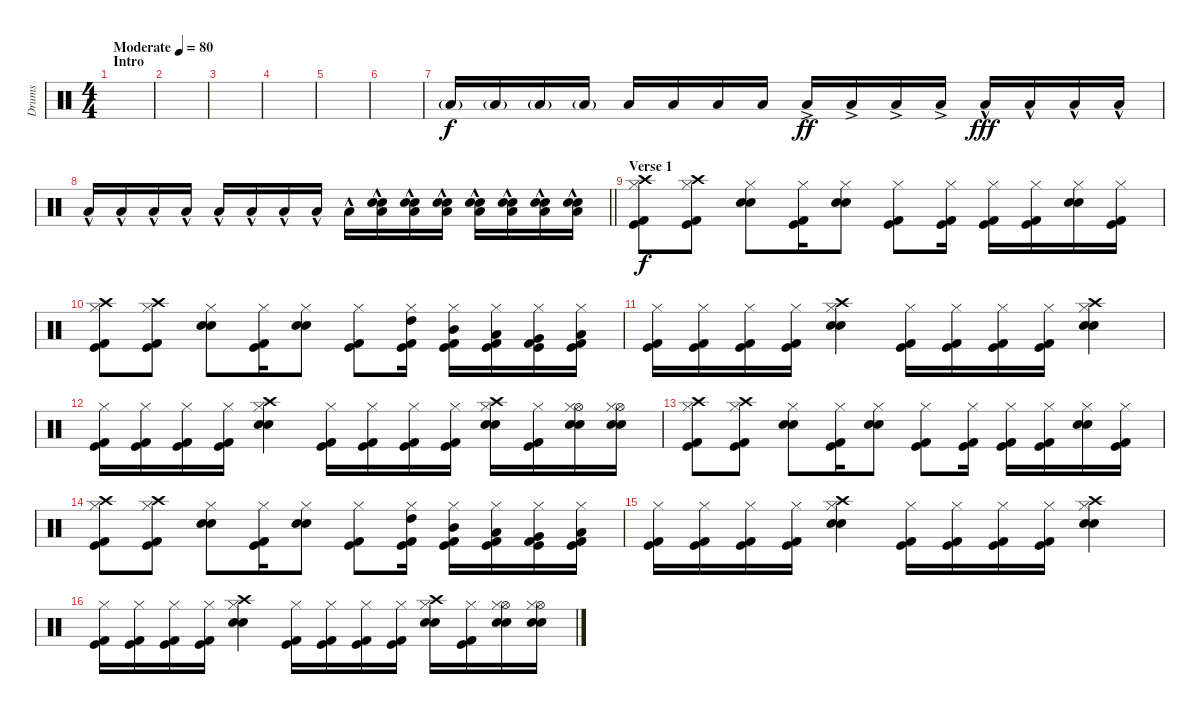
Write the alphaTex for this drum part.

\track ("Drums" "Drums") {instrument percussion}
\staff {score}
\articulation defaults
\ts (4 4)
\section ("" "Intro")
\tempo (80 "Moderate")
\clef neutral
\ks c
|
|
|
|
|
|
"Low Floor Tom (hit)"{g}.16 "Low Floor Tom (hit)"{g}.16 "Low Floor Tom (hit)"{g}.16 "Low Floor Tom (hit)"{g}.16 "Low Floor Tom (hit)".16{dy f} "Low Floor Tom (hit)".16 "Low Floor Tom (hit)".16 "Low Floor Tom (hit)".16 "Low Floor Tom (hit)"{ac}.16{dy ff} "Low Floor Tom (hit)"{ac}.16 "Low Floor Tom (hit)"{ac}.16 "Low Floor Tom (hit)"{ac}.16 "Low Floor Tom (hit)"{hac}.16{dy fff} "Low Floor Tom (hit)"{hac}.16 "Low Floor Tom (hit)"{hac}.16 "Low Floor Tom (hit)"{hac}.16 |
\barLineRight lightlight "Low Floor Tom (hit)"{hac}.16 "Low Floor Tom (hit)"{hac}.16 "Low Floor Tom (hit)"{hac}.16 "Low Floor Tom (hit)"{hac}.16 "Low Floor Tom (hit)"{hac}.16 "Low Floor Tom (hit)"{hac}.16 "Low Floor Tom (hit)"{hac}.16 "Low Floor Tom (hit)"{hac}.16 "Low Floor Tom (hit)"{hac}.16
("Snare (hit) 2"{hac} "Snare (hit) 2" "Low Floor Tom (hit)"{hac}).16 ("Snare (hit) 2"{hac} "Snare (hit) 2" "Low Floor Tom (hit)"{hac}).16 ("Snare (hit) 2"{hac} "Snare (hit) 2" "Low Floor Tom (hit)"{hac}).16 ("Snare (hit) 2"{hac} "Snare (hit) 2" "Low Floor Tom (hit)"{hac}).16 ("Snare (hit) 2"{hac} "Snare (hit) 2" "Low Floor Tom (hit)"{hac}).16 ("Snare (hit) 2"{hac} "Snare (hit) 2" "Low Floor Tom (hit)"{hac}).16 ("Snare (hit) 2"{hac} "Snare (hit) 2" "Low Floor Tom (hit)"{hac}).16 |
\section ("" "Verse 1")
("Crash high (hit)" "Hi-Hat (closed)" "Kick (hit) 2" "Kick (hit)").8{dy f} ("Crash high (hit)" "Hi-Hat (closed)" "Kick (hit) 2" "Kick (hit)").8 ("Hi-Hat (closed)" "Snare (hit) 2" "Electric Snare (hit)").8 ("Hi-Hat (closed)" "Kick (hit) 2" "Kick (hit)").16 ("Hi-Hat (closed)" "Snare (hit) 2" "Electric Snare (hit)").8 ("Hi-Hat (closed)" "Kick (hit) 2" "Kick (hit)").8 ("Hi-Hat (closed)" "Kick (hit) 2" "Kick (hit)").16 ("Hi-Hat (closed)" "Kick (hit) 2" "Kick (hit)").16 ("Hi-Hat (closed)" "Kick (hit) 2" "Kick (hit)").16 ("Hi-Hat (closed)" "Snare (hit) 2" "Electric Snare (hit)").16 ("Hi-Hat (closed)" "Kick (hit) 2" "Kick (hit)").16 |
("Crash high (hit)" "Hi-Hat (closed)" "Kick (hit) 2" "Kick (hit)").8 ("Crash high (hit)" "Hi-Hat (closed)" "Kick (hit) 2" "Kick (hit)").8 ("Hi-Hat (closed)" "Snare (hit) 2" "Electric Snare (hit)").8 ("Hi-Hat (closed)" "Kick (hit) 2" "Kick (hit)").16 ("Hi-Hat (closed)" "Snare (hit) 2" "Electric Snare (hit)").8 ("Hi-Hat (closed)" "Kick (hit) 2" "Kick (hit)").8 ("Hi-Hat (closed)" "High Tom (hit)" "Kick (hit) 2" "Kick (hit)").16 ("Hi-Hat (closed)" "Mid Tom (hit)" "Kick (hit) 2" "Kick (hit)").16 ("Hi-Hat (closed)" "Low Tom (hit)" "Kick (hit) 2" "Kick (hit)").16 ("Hi-Hat (closed)" "Very Low Tom (hit)" "Kick (hit) 2" "Kick (hit)").16 ("Hi-Hat (closed)" "Low Floor Tom (hit)" "Kick (hit) 2" "Kick (hit)").16 |
("Hi-Hat (closed)" "Kick (hit) 2" "Kick (hit)").16 ("Hi-Hat (closed)" "Kick (hit) 2" "Kick (hit)").16 ("Hi-Hat (closed)" "Kick (hit) 2" "Kick (hit)").16 ("Hi-Hat (closed)" "Kick (hit) 2" "Kick (hit)").16 ("Crash high (hit)" "Hi-Hat (closed)" "Snare (hit) 2" "Electric Snare (hit)").4 ("Hi-Hat (closed)" "Kick (hit) 2" "Kick (hit)").16 ("Hi-Hat (closed)" "Kick (hit) 2" "Kick (hit)").16 ("Hi-Hat (closed)" "Kick (hit) 2" "Kick (hit)").16 ("Hi-Hat (closed)" "Kick (hit) 2" "Kick (hit)").16 ("Crash high (hit)" "Hi-Hat (closed)" "Snare (hit) 2" "Electric Snare (hit)").4 |
("Hi-Hat (closed)" "Kick (hit) 2" "Kick (hit)").16 ("Hi-Hat (closed)" "Kick (hit) 2" "Kick (hit)").16 ("Hi-Hat (closed)" "Kick (hit) 2" "Kick (hit)").16 ("Hi-Hat (closed)" "Kick (hit) 2" "Kick (hit)").16 ("Crash high (hit)" "Hi-Hat (closed)" "Snare (hit) 2" "Electric Snare (hit)").4 ("Hi-Hat (closed)" "Kick (hit) 2" "Kick (hit)").16 ("Hi-Hat (closed)" "Kick (hit) 2" "Kick (hit)").16 ("Hi-Hat (closed)" "Kick (hit) 2" "Kick (hit)").16 ("Hi-Hat (closed)" "Kick (hit) 2" "Kick (hit)").16 ("Crash high (hit)" "Hi-Hat (closed)" "Snare (hit) 2" "Electric Snare (hit)").16 ("Hi-Hat (closed)" "Kick (hit) 2" "Kick (hit)").16 ("Hi-Hat (open)" "Hi-Hat (closed)" "Snare (hit) 2" "Electric Snare (hit)").16 ("Hi-Hat (open)" "Hi-Hat (closed)" "Snare (hit) 2" "Electric Snare (hit)").16 |
("Crash high (hit)" "Hi-Hat (closed)" "Kick (hit) 2" "Kick (hit)").8 ("Crash high (hit)" "Hi-Hat (closed)" "Kick (hit) 2" "Kick (hit)").8 ("Hi-Hat (closed)" "Snare (hit) 2" "Electric Snare (hit)").8 ("Hi-Hat (closed)" "Kick (hit) 2" "Kick (hit)").16 ("Hi-Hat (closed)" "Snare (hit) 2" "Electric Snare (hit)").8 ("Hi-Hat (closed)" "Kick (hit) 2" "Kick (hit)").8 ("Hi-Hat (closed)" "Kick (hit) 2" "Kick (hit)").16 ("Hi-Hat (closed)" "Kick (hit) 2" "Kick (hit)").16 ("Hi-Hat (closed)" "Kick (hit) 2" "Kick (hit)").16 ("Hi-Hat (closed)" "Snare (hit) 2" "Electric Snare (hit)").16 ("Hi-Hat (closed)" "Kick (hit) 2" "Kick (hit)").16 |
("Crash high (hit)" "Hi-Hat (closed)" "Kick (hit) 2" "Kick (hit)").8 ("Crash high (hit)" "Hi-Hat (closed)" "Kick (hit) 2" "Kick (hit)").8 ("Hi-Hat (closed)" "Snare (hit) 2" "Electric Snare (hit)").8 ("Hi-Hat (closed)" "Kick (hit) 2" "Kick (hit)").16 ("Hi-Hat (closed)" "Snare (hit) 2" "Electric Snare (hit)").8 ("Hi-Hat (closed)" "Kick (hit) 2" "Kick (hit)").8 ("Hi-Hat (closed)" "High Tom (hit)" "Kick (hit) 2" "Kick (hit)").16 ("Hi-Hat (closed)" "Mid Tom (hit)" "Kick (hit) 2" "Kick (hit)").16 ("Hi-Hat (closed)" "Low Tom (hit)" "Kick (hit) 2" "Kick (hit)").16 ("Hi-Hat (closed)" "Very Low Tom (hit)" "Kick (hit) 2" "Kick (hit)").16 ("Hi-Hat (closed)" "Low Floor Tom (hit)" "Kick (hit) 2" "Kick (hit)").16 |
("Hi-Hat (closed)" "Kick (hit) 2" "Kick (hit)").16 ("Hi-Hat (closed)" "Kick (hit) 2" "Kick (hit)").16 ("Hi-Hat (closed)" "Kick (hit) 2" "Kick (hit)").16 ("Hi-Hat (closed)" "Kick (hit) 2" "Kick (hit)").16 ("Crash high (hit)" "Hi-Hat (closed)" "Snare (hit) 2" "Electric Snare (hit)").4 ("Hi-Hat (closed)" "Kick (hit) 2" "Kick (hit)").16 ("Hi-Hat (closed)" "Kick (hit) 2" "Kick (hit)").16 ("Hi-Hat (closed)" "Kick (hit) 2" "Kick (hit)").16 ("Hi-Hat (closed)" "Kick (hit) 2" "Kick (hit)").16 ("Crash high (hit)" "Hi-Hat (closed)" "Snare (hit) 2" "Electric Snare (hit)").4 |
("Hi-Hat (closed)" "Kick (hit) 2" "Kick (hit)").16 ("Hi-Hat (closed)" "Kick (hit) 2" "Kick (hit)").16 ("Hi-Hat (closed)" "Kick (hit) 2" "Kick (hit)").16 ("Hi-Hat (closed)" "Kick (hit) 2" "Kick (hit)").16 ("Crash high (hit)" "Hi-Hat (closed)" "Snare (hit) 2" "Electric Snare (hit)").4 ("Hi-Hat (closed)" "Kick (hit) 2" "Kick (hit)").16 ("Hi-Hat (closed)" "Kick (hit) 2" "Kick (hit)").16 ("Hi-Hat (closed)" "Kick (hit) 2" "Kick (hit)").16 ("Hi-Hat (closed)" "Kick (hit) 2" "Kick (hit)").16 ("Crash high (hit)" "Hi-Hat (closed)" "Snare (hit) 2" "Electric Snare (hit)").16 ("Hi-Hat (closed)" "Kick (hit) 2" "Kick (hit)").16 ("Hi-Hat (open)" "Hi-Hat (closed)" "Snare (hit) 2" "Electric Snare (hit)").16 ("Hi-Hat (open)" "Hi-Hat (closed)" "Snare (hit) 2" "Electric Snare (hit)").16
